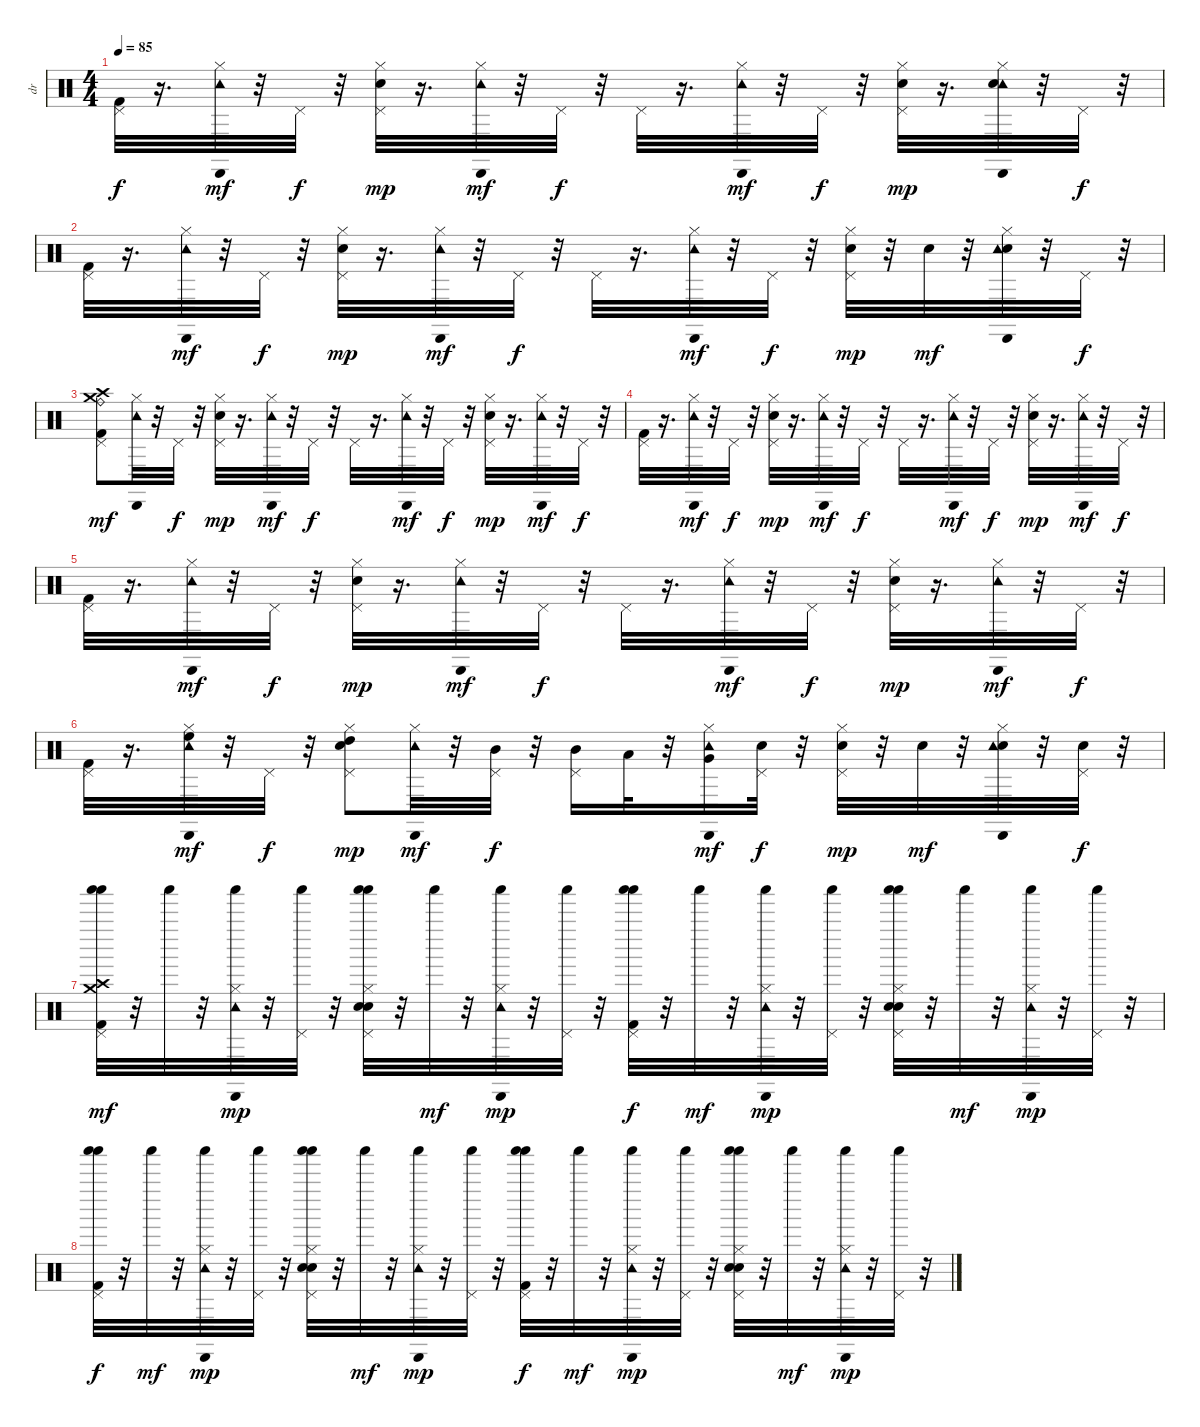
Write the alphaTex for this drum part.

\track ("dr" "dr") {instrument percussion}
\staff {score}
\articulation defaults
\ts (4 4)
\tempo 85
\clef neutral
\ks c
("Pedal Hi-Hat (hit)" "Kick (hit) 2").32{dy f} r.16{d} ("Hi-Hat (closed)" "Cabasa (hit)" "Tambourine (hit)").32{dy mf} r.32 "Pedal Hi-Hat (hit)".32{dy f} r.32 ("Electric Snare (hit)" "Pedal Hi-Hat (hit)" "Hi-Hat (closed)").32{dy mp} r.16{d} ("Hi-Hat (closed)" "Cabasa (hit)" "Tambourine (hit)").32{dy mf} r.32 "Pedal Hi-Hat (hit)".32{dy f} r.32 "Pedal Hi-Hat (hit)".32 r.16{d} ("Hi-Hat (closed)" "Cabasa (hit)" "Tambourine (hit)").32{dy mf} r.32 "Pedal Hi-Hat (hit)".32{dy f} r.32 ("Pedal Hi-Hat (hit)" "Hi-Hat (closed)" "Electric Snare (hit)").32{dy mp} r.16{d} ("Hi-Hat (closed)" "Cabasa (hit)" "Tambourine (hit)" "Snare (hit) 2").32 r.32 "Pedal Hi-Hat (hit)".32{dy f} r.32 |
("Pedal Hi-Hat (hit)" "Kick (hit) 2").32 r.16{d} ("Hi-Hat (closed)" "Cabasa (hit)" "Tambourine (hit)").32{dy mf} r.32 "Pedal Hi-Hat (hit)".32{dy f} r.32 ("Electric Snare (hit)" "Pedal Hi-Hat (hit)" "Hi-Hat (closed)").32{dy mp} r.16{d} ("Hi-Hat (closed)" "Cabasa (hit)" "Tambourine (hit)").32{dy mf} r.32 "Pedal Hi-Hat (hit)".32{dy f} r.32 "Pedal Hi-Hat (hit)".32 r.16{d} ("Hi-Hat (closed)" "Cabasa (hit)" "Tambourine (hit)").32{dy mf} r.32 "Pedal Hi-Hat (hit)".32{dy f} r.32 ("Electric Snare (hit)" "Pedal Hi-Hat (hit)" "Hi-Hat (closed)").32{dy mp} r.32 "Snare (hit) 2".32{dy mf} r.32 ("Snare (hit) 2" "Hi-Hat (closed)" "Cabasa (hit)" "Tambourine (hit)").32 r.32 "Pedal Hi-Hat (hit)".32{dy f} r.32 |
("Kick (hit) 2" "Crash high (hit)" "Ride (bell)" "Crash medium (hit)" "Pedal Hi-Hat (hit)").8{dy mf} ("Hi-Hat (closed)" "Cabasa (hit)" "Tambourine (hit)").32 r.32 "Pedal Hi-Hat (hit)".32{dy f} r.32 ("Electric Snare (hit)" "Pedal Hi-Hat (hit)" "Hi-Hat (closed)").32{dy mp} r.16{d} ("Hi-Hat (closed)" "Cabasa (hit)" "Tambourine (hit)").32{dy mf} r.32 "Pedal Hi-Hat (hit)".32{dy f} r.32 "Pedal Hi-Hat (hit)".32 r.16{d} ("Hi-Hat (closed)" "Cabasa (hit)" "Tambourine (hit)").32{dy mf} r.32 "Pedal Hi-Hat (hit)".32{dy f} r.32 ("Electric Snare (hit)" "Pedal Hi-Hat (hit)" "Hi-Hat (closed)").32{dy mp} r.16{d} ("Hi-Hat (closed)" "Cabasa (hit)" "Tambourine (hit)").32{dy mf} r.32 "Pedal Hi-Hat (hit)".32{dy f} r.32 |
("Pedal Hi-Hat (hit)" "Kick (hit) 2").32 r.16{d} ("Hi-Hat (closed)" "Cabasa (hit)" "Tambourine (hit)").32{dy mf} r.32 "Pedal Hi-Hat (hit)".32{dy f} r.32 ("Electric Snare (hit)" "Pedal Hi-Hat (hit)" "Hi-Hat (closed)").32{dy mp} r.16{d} ("Hi-Hat (closed)" "Cabasa (hit)" "Tambourine (hit)").32{dy mf} r.32 "Pedal Hi-Hat (hit)".32{dy f} r.32 "Pedal Hi-Hat (hit)".32 r.16{d} ("Hi-Hat (closed)" "Cabasa (hit)" "Tambourine (hit)").32{dy mf} r.32 "Pedal Hi-Hat (hit)".32{dy f} r.32 ("Electric Snare (hit)" "Pedal Hi-Hat (hit)" "Hi-Hat (closed)").32{dy mp} r.16{d} ("Hi-Hat (closed)" "Cabasa (hit)" "Tambourine (hit)").32{dy mf} r.32 "Pedal Hi-Hat (hit)".32{dy f} r.32 |
("Pedal Hi-Hat (hit)" "Kick (hit) 2").32 r.16{d} ("Hi-Hat (closed)" "Cabasa (hit)" "Tambourine (hit)").32{dy mf} r.32 "Pedal Hi-Hat (hit)".32{dy f} r.32 ("Electric Snare (hit)" "Pedal Hi-Hat (hit)" "Hi-Hat (closed)").32{dy mp} r.16{d} ("Hi-Hat (closed)" "Cabasa (hit)" "Tambourine (hit)").32{dy mf} r.32 "Pedal Hi-Hat (hit)".32{dy f} r.32 "Pedal Hi-Hat (hit)".32 r.16{d} ("Hi-Hat (closed)" "Cabasa (hit)" "Tambourine (hit)").32{dy mf} r.32 "Pedal Hi-Hat (hit)".32{dy f} r.32 ("Electric Snare (hit)" "Pedal Hi-Hat (hit)" "Hi-Hat (closed)").32{dy mp} r.16{d} ("Hi-Hat (closed)" "Cabasa (hit)" "Tambourine (hit)").32{dy mf} r.32 "Pedal Hi-Hat (hit)".32{dy f} r.32 |
("Pedal Hi-Hat (hit)" "Kick (hit) 2").32 r.16{d} ("Hi-Hat (closed)" "Cabasa (hit)" "Tambourine (hit)" "High Floor Tom (hit)").32{dy mf} r.32 "Pedal Hi-Hat (hit)".32{dy f} r.32 ("Electric Snare (hit)" "Pedal Hi-Hat (hit)" "Hi-Hat (closed)" "High Tom (hit)").8{dy mp} ("Hi-Hat (closed)" "Cabasa (hit)" "Tambourine (hit)").32{dy mf} r.32 ("Pedal Hi-Hat (hit)" "Mid Tom (hit)").32{dy f} r.32 ("Pedal Hi-Hat (hit)" "Mid Tom (hit)").16 "Low Tom (hit)".32 r.32 ("Hi-Hat (closed)" "Cabasa (hit)" "Tambourine (hit)" "Very Low Tom (hit)").16{dy mf} ("Pedal Hi-Hat (hit)" "Snare (hit) 2").32{dy f} r.32 ("Electric Snare (hit)" "Pedal Hi-Hat (hit)" "Hi-Hat (closed)").32{dy mp} r.32 "Snare (hit) 2".32{dy mf} r.32 ("Snare (hit) 2" "Hi-Hat (closed)" "Cabasa (hit)" "Tambourine (hit)").32 r.32 ("Pedal Hi-Hat (hit)" "Snare (hit) 2").32{dy f} r.32 |
("Shaker (hit)" "Shaker (hit)" "Pedal Hi-Hat (hit)" "Crash high (hit)" "Kick (hit) 2" "Crash medium (hit)").32{dy mf} r.32 "Shaker (hit)".32 r.32 ("Hi-Hat (closed)" "Tambourine (hit)" "Cabasa (hit)" "Shaker (hit)").32{dy mp} r.32 ("Pedal Hi-Hat (hit)" "Shaker (hit)").32 r.32 ("Electric Snare (hit)" "Pedal Hi-Hat (hit)" "Shaker (hit)" "Shaker (hit)" "Hi-Hat (closed)" "Snare (hit) 2").32 r.32 "Shaker (hit)".32{dy mf} r.32 ("Hi-Hat (closed)" "Tambourine (hit)" "Cabasa (hit)" "Shaker (hit)").32{dy mp} r.32 ("Pedal Hi-Hat (hit)" "Shaker (hit)").32 r.32 ("Pedal Hi-Hat (hit)" "Shaker (hit)" "Shaker (hit)" "Kick (hit) 2").32{dy f} r.32 "Shaker (hit)".32{dy mf} r.32 ("Hi-Hat (closed)" "Tambourine (hit)" "Cabasa (hit)" "Shaker (hit)").32{dy mp} r.32 ("Pedal Hi-Hat (hit)" "Shaker (hit)").32 r.32 ("Electric Snare (hit)" "Pedal Hi-Hat (hit)" "Shaker (hit)" "Shaker (hit)" "Hi-Hat (closed)" "Snare (hit) 2").32 r.32 "Shaker (hit)".32{dy mf} r.32 ("Hi-Hat (closed)" "Tambourine (hit)" "Cabasa (hit)" "Shaker (hit)").32{dy mp} r.32 ("Pedal Hi-Hat (hit)" "Shaker (hit)").32 r.32 |
("Pedal Hi-Hat (hit)" "Shaker (hit)" "Shaker (hit)" "Kick (hit) 2").32{dy f} r.32 "Shaker (hit)".32{dy mf} r.32 ("Hi-Hat (closed)" "Tambourine (hit)" "Cabasa (hit)" "Shaker (hit)").32{dy mp} r.32 ("Pedal Hi-Hat (hit)" "Shaker (hit)").32 r.32 ("Electric Snare (hit)" "Pedal Hi-Hat (hit)" "Shaker (hit)" "Shaker (hit)" "Hi-Hat (closed)" "Snare (hit) 2").32 r.32 "Shaker (hit)".32{dy mf} r.32 ("Hi-Hat (closed)" "Tambourine (hit)" "Cabasa (hit)" "Shaker (hit)").32{dy mp} r.32 ("Pedal Hi-Hat (hit)" "Shaker (hit)").32 r.32 ("Pedal Hi-Hat (hit)" "Shaker (hit)" "Shaker (hit)" "Kick (hit) 2").32{dy f} r.32 "Shaker (hit)".32{dy mf} r.32 ("Hi-Hat (closed)" "Tambourine (hit)" "Cabasa (hit)" "Shaker (hit)").32{dy mp} r.32 ("Pedal Hi-Hat (hit)" "Shaker (hit)").32 r.32 ("Electric Snare (hit)" "Pedal Hi-Hat (hit)" "Shaker (hit)" "Shaker (hit)" "Hi-Hat (closed)" "Snare (hit) 2").32 r.32 "Shaker (hit)".32{dy mf} r.32 ("Hi-Hat (closed)" "Tambourine (hit)" "Cabasa (hit)" "Shaker (hit)").32{dy mp} r.32 ("Pedal Hi-Hat (hit)" "Shaker (hit)").32 r.32
